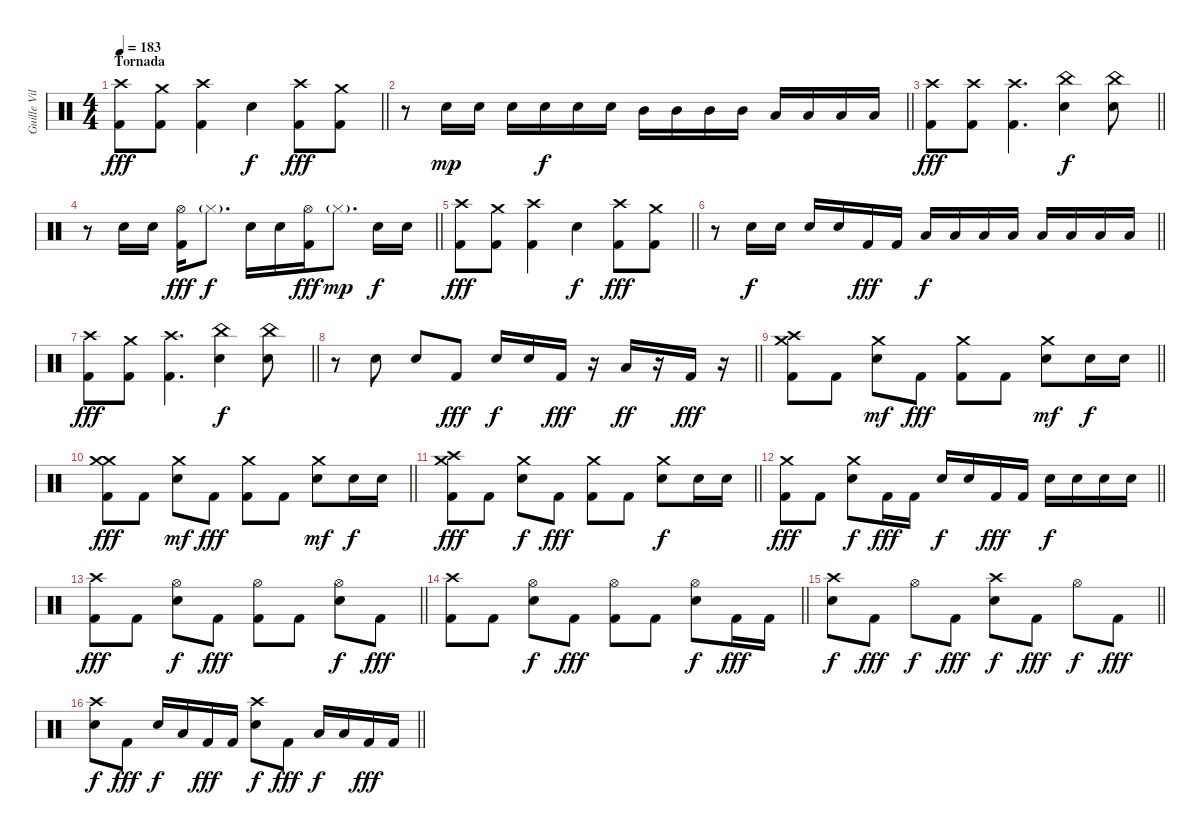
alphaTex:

\track ("Guille Vila" "Guille Vil") {instrument percussion}
\staff {score}
\articulation defaults
\ts (4 4)
\section ("" "Tornada")
\tempo 183
\clef neutral
\barLineRight lightlight
\ks c
("Crash high (hit)" "Kick (hit) 2").8{dy fff} ("Crash medium (hit)" "Kick (hit) 2").8 ("Crash high (hit)" "Kick (hit) 2").4 "Snare (hit) 2".4{dy f} ("Crash high (hit)" "Kick (hit) 2").8{dy fff} ("Crash medium (hit)" "Kick (hit) 2").8 |
\barLineRight lightlight
r.8 "Snare (hit) 2".16{dy mp} "Snare (hit) 2".16 "Snare (hit) 2".16 "Snare (hit) 2".16{dy f} "Snare (hit) 2".16 "Snare (hit) 2".16 "Mid Tom (hit)".16 "Mid Tom (hit)".16 "Mid Tom (hit)".16 "Mid Tom (hit)".16 "Low Tom (hit)".16 "Low Tom (hit)".16 "Low Tom (hit)".16 "Low Tom (hit)".16 |
\barLineRight lightlight
("Crash high (hit)" "Kick (hit) 2").8{dy fff} ("Crash high (hit)" "Kick (hit) 2").8 ("Crash high (hit)" "Kick (hit) 2").4{d} ("China (hit)" "Snare (hit) 2").4{dy f} ("China (hit)" "Snare (hit) 2").8 |
\barLineRight lightlight
r.8 "Snare (hit) 2".16 "Snare (hit) 2".16 ("Hi-Hat (open)" "Kick (hit) 2").16{dy fff} "Hi-Hat (closed)"{g}.8{d dy f} "Snare (hit) 2".16 "Snare (hit) 2".16 ("Hi-Hat (open)" "Kick (hit) 2").16{dy fff} "Hi-Hat (closed)"{g}.8{d dy mp} "Snare (hit) 2".16{dy f} "Snare (hit) 2".16 |
\barLineRight lightlight
("Crash high (hit)" "Kick (hit) 2").8{dy fff} ("Crash medium (hit)" "Kick (hit) 2").8 ("Crash high (hit)" "Kick (hit) 2").4 "Snare (hit) 2".4{dy f} ("Crash high (hit)" "Kick (hit) 2").8{dy fff} ("Crash medium (hit)" "Kick (hit) 2").8 |
\barLineRight lightlight
r.8 "Snare (hit) 2".16{dy f} "Snare (hit) 2".16 "Snare (hit) 2".16 "Snare (hit) 2".16 "Kick (hit) 2".16{dy fff} "Kick (hit) 2".16 "Low Tom (hit)".16{dy f} "Low Tom (hit)".16 "Low Tom (hit)".16 "Low Tom (hit)".16 "Low Floor Tom (hit)".16 "Low Floor Tom (hit)".16 "Low Floor Tom (hit)".16 "Low Floor Tom (hit)".16 |
\barLineRight lightlight
("Crash high (hit)" "Kick (hit) 2").8{dy fff} ("Crash medium (hit)" "Kick (hit) 2").8 ("Crash high (hit)" "Kick (hit) 2").4{d} ("China (hit)" "Snare (hit) 2").4{dy f} ("China (hit)" "Snare (hit) 2").8 |
\barLineRight lightlight
r.8 "Snare (hit) 2".8 "Snare (hit) 2".8 "Kick (hit) 2".8{dy fff} "Snare (hit) 2".16{dy f} "Snare (hit) 2".16 "Kick (hit) 2".16{dy fff} r.16 "Low Tom (hit)".16{dy ff} r.16 "Kick (hit) 2".16{dy fff} r.16 |
\barLineRight lightlight
("Crash high (hit)" "Crash medium (hit)" "Kick (hit) 2").8 "Kick (hit) 2".8 ("Crash medium (hit)" "Snare (hit) 2").8{dy mf} "Kick (hit) 2".8{dy fff} ("Crash medium (hit)" "Kick (hit) 2").8 "Kick (hit) 2".8 ("Crash medium (hit)" "Snare (hit) 2").8{dy mf} "Snare (hit) 2".16{dy f} "Snare (hit) 2".16 |
\barLineRight lightlight
("Crash medium (hit)" "Crash medium (hit)" "Kick (hit) 2").8{dy fff} "Kick (hit) 2".8 ("Crash medium (hit)" "Snare (hit) 2").8{dy mf} "Kick (hit) 2".8{dy fff} ("Crash medium (hit)" "Kick (hit) 2").8 "Kick (hit) 2".8 ("Crash medium (hit)" "Snare (hit) 2").8{dy mf} "Snare (hit) 2".16{dy f} "Snare (hit) 2".16 |
\barLineRight lightlight
("Crash high (hit)" "Crash medium (hit)" "Kick (hit) 2").8{dy fff} "Kick (hit) 2".8 ("Crash medium (hit)" "Snare (hit) 2").8{dy f} "Kick (hit) 2".8{dy fff} ("Crash medium (hit)" "Kick (hit) 2").8 "Kick (hit) 2".8 ("Crash medium (hit)" "Snare (hit) 2").8{dy f} "Snare (hit) 2".16 "Snare (hit) 2".16 |
\barLineRight lightlight
("Crash medium (hit)" "Kick (hit) 2").8{dy fff} "Kick (hit) 2".8 ("Crash medium (hit)" "Snare (hit) 2").8{dy f} "Kick (hit) 2".16{dy fff} "Kick (hit) 2".16 "Snare (hit) 2".16{dy f} "Snare (hit) 2".16 "Kick (hit) 2".16{dy fff} "Kick (hit) 2".16 "Snare (hit) 2".16{dy f} "Snare (hit) 2".16 "Snare (hit) 2".16 "Snare (hit) 2".16 |
\barLineRight lightlight
("Crash high (hit)" "Kick (hit) 2").8{dy fff} "Kick (hit) 2".8 ("Hi-Hat (open)" "Snare (hit) 2").8{dy f} "Kick (hit) 2".8{dy fff} ("Hi-Hat (open)" "Kick (hit) 2").8 "Kick (hit) 2".8 ("Hi-Hat (open)" "Snare (hit) 2").8{dy f} "Kick (hit) 2".8{dy fff} |
\barLineRight lightlight
("Crash high (hit)" "Kick (hit) 2").8 "Kick (hit) 2".8 ("Hi-Hat (open)" "Snare (hit) 2").8{dy f} "Kick (hit) 2".8{dy fff} ("Hi-Hat (open)" "Kick (hit) 2").8 "Kick (hit) 2".8 ("Hi-Hat (open)" "Snare (hit) 2").8{dy f} "Kick (hit) 2".16{dy fff} "Kick (hit) 2".16 |
\barLineRight lightlight
("Crash high (hit)" "Snare (hit) 2").8{dy f} "Kick (hit) 2".8{dy fff} "Hi-Hat (open)".8{dy f} "Kick (hit) 2".8{dy fff} ("Crash high (hit)" "Snare (hit) 2").8{dy f} "Kick (hit) 2".8{dy fff} "Hi-Hat (open)".8{dy f} "Kick (hit) 2".8{dy fff} |
\barLineRight lightlight
("Crash high (hit)" "Snare (hit) 2").8{dy f} "Kick (hit) 2".8{dy fff} "Snare (hit) 2".16{dy f} "Low Tom (hit)".16 "Kick (hit) 2".16{dy fff} "Kick (hit) 2".16 ("Crash high (hit)" "Snare (hit) 2").8{dy f} "Kick (hit) 2".8{dy fff} "Low Floor Tom (hit)".16{dy f} "Low Tom (hit)".16 "Kick (hit) 2".16{dy fff} "Kick (hit) 2".16
